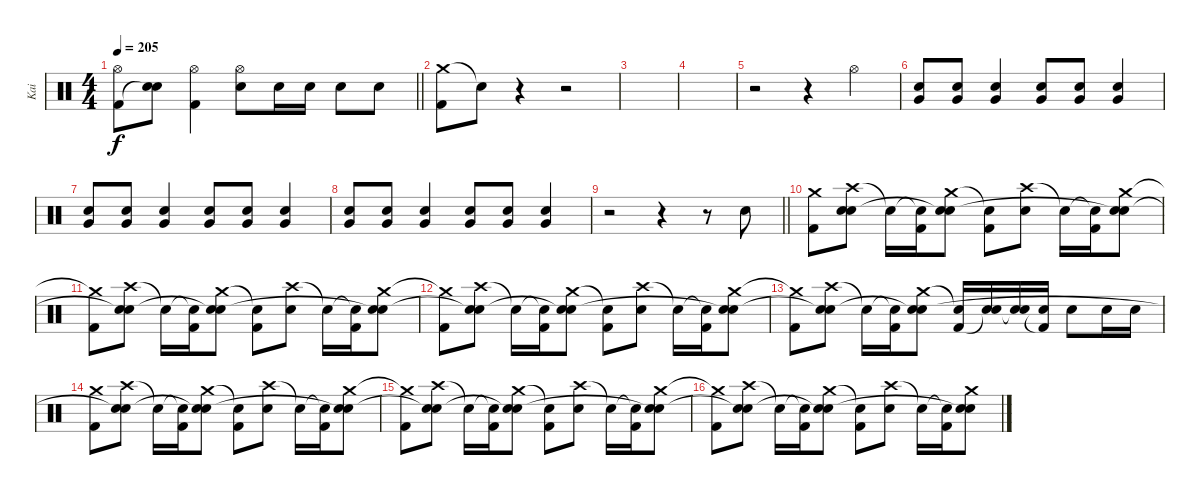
\track ("Kai" "Kai") {instrument percussion}
\staff {score}
\articulation defaults
\ts (4 4)
\tempo 205
\clef neutral
\barLineRight lightlight
\ks c
("Hi-Hat (open)" "Kick (hit) 2").8{dy f} ("Snare (hit) 2" "Snare (hit)"{t}).8 ("Hi-Hat (open)" "Kick (hit) 2").4 ("Hi-Hat (open)" "Snare (hit) 2").8 "Snare (hit) 2".16 "Snare (hit) 2".16 "Snare (hit) 2".8 "Snare (hit) 2".8 |
("Crash medium (hit)" "Kick (hit) 2").8 "Snare (hit)"{t}.8 r.4 r.2 |
|
|
r.2 r.4 "Hi-Hat (open)".4 |
("Snare (hit) 2" "Very Low Tom (hit)").8 ("Snare (hit) 2" "Very Low Tom (hit)").8 ("Snare (hit) 2" "Very Low Tom (hit)").4 ("Snare (hit) 2" "Very Low Tom (hit)").8 ("Snare (hit) 2" "Very Low Tom (hit)").8 ("Snare (hit) 2" "Very Low Tom (hit)").4 |
("Snare (hit) 2" "Very Low Tom (hit)").8 ("Snare (hit) 2" "Very Low Tom (hit)").8 ("Snare (hit) 2" "Very Low Tom (hit)").4 ("Snare (hit) 2" "Very Low Tom (hit)").8 ("Snare (hit) 2" "Very Low Tom (hit)").8 ("Snare (hit) 2" "Very Low Tom (hit)").4 |
("Snare (hit) 2" "Very Low Tom (hit)").8 ("Snare (hit) 2" "Very Low Tom (hit)").8 ("Snare (hit) 2" "Very Low Tom (hit)").4 ("Snare (hit) 2" "Very Low Tom (hit)").8 ("Snare (hit) 2" "Very Low Tom (hit)").8 ("Snare (hit) 2" "Very Low Tom (hit)").4 |
\barLineRight lightlight
r.2 r.4 r.8 "Snare (hit) 2".8 |
("Crash medium (hit)" "Kick (hit) 2").8 ("Crash high (hit)" "Snare (hit) 2" "Snare (hit)").8 "Snare (hit)"{t}.16 ("Snare (hit)"{t} "Kick (hit) 2").16 ("Crash medium (hit)" "Snare (hit) 2" "Snare (hit)"{t}).8 ("Snare (hit)"{t} "Kick (hit) 2").8 ("Crash high (hit)" "Snare (hit) 2").8 "Snare (hit)"{t}.16 ("Snare (hit)"{t} "Kick (hit) 2").16 ("Crash medium (hit)" "Snare (hit) 2" "Snare (hit)"{t}).8 |
("Crash medium (hit)"{t} "Kick (hit) 2").8 ("Crash high (hit)" "Snare (hit) 2" "Snare (hit)"{t}).8 "Snare (hit)"{t}.16 ("Snare (hit)"{t} "Kick (hit) 2").16 ("Crash medium (hit)" "Snare (hit) 2" "Snare (hit)"{t}).8 ("Snare (hit)"{t} "Kick (hit) 2").8 ("Crash high (hit)" "Snare (hit) 2").8 "Snare (hit)"{t}.16 ("Snare (hit)"{t} "Kick (hit) 2").16 ("Crash medium (hit)" "Snare (hit) 2" "Snare (hit)"{t}).8 |
("Crash medium (hit)"{t} "Kick (hit) 2").8 ("Crash high (hit)" "Snare (hit) 2" "Snare (hit)"{t}).8 "Snare (hit)"{t}.16 ("Snare (hit)"{t} "Kick (hit) 2").16 ("Crash medium (hit)" "Snare (hit) 2" "Snare (hit)"{t}).8 ("Snare (hit)"{t} "Kick (hit) 2").8 ("Crash high (hit)" "Snare (hit) 2").8 "Snare (hit)"{t}.16 ("Snare (hit)"{t} "Kick (hit) 2").16 ("Crash medium (hit)" "Snare (hit) 2" "Snare (hit)"{t}).8 |
("Crash medium (hit)"{t} "Kick (hit) 2").8 ("Crash high (hit)" "Snare (hit) 2" "Snare (hit)"{t}).8 "Snare (hit)"{t}.16 ("Snare (hit)"{t} "Kick (hit) 2").16 ("Crash medium (hit)" "Snare (hit) 2" "Snare (hit)"{t}).8 ("Snare (hit)"{t} "Kick (hit) 2").16 ("Snare (hit) 2" "Snare (hit)"{t}).16 ("Snare (hit) 2" "Snare (hit)"{t}).16 ("Snare (hit) 2" "Kick (hit) 2"{t}).16 "Snare (hit) 2".8 "Snare (hit) 2".16 "Snare (hit) 2".16 |
("Crash medium (hit)" "Kick (hit) 2").8 ("Crash high (hit)" "Snare (hit) 2" "Snare (hit)"{t}).8 "Snare (hit)"{t}.16 ("Snare (hit)"{t} "Kick (hit) 2").16 ("Crash medium (hit)" "Snare (hit) 2" "Snare (hit)"{t}).8 ("Snare (hit)"{t} "Kick (hit) 2").8 ("Crash high (hit)" "Snare (hit) 2").8 "Snare (hit)"{t}.16 ("Snare (hit)"{t} "Kick (hit) 2").16 ("Crash medium (hit)" "Snare (hit) 2" "Snare (hit)"{t}).8 |
("Crash medium (hit)"{t} "Kick (hit) 2").8 ("Crash high (hit)" "Snare (hit) 2" "Snare (hit)"{t}).8 "Snare (hit)"{t}.16 ("Snare (hit)"{t} "Kick (hit) 2").16 ("Crash medium (hit)" "Snare (hit) 2" "Snare (hit)"{t}).8 ("Snare (hit)"{t} "Kick (hit) 2").8 ("Crash high (hit)" "Snare (hit) 2").8 "Snare (hit)"{t}.16 ("Snare (hit)"{t} "Kick (hit) 2").16 ("Crash medium (hit)" "Snare (hit) 2" "Snare (hit)"{t}).8 |
("Crash medium (hit)"{t} "Kick (hit) 2").8 ("Crash high (hit)" "Snare (hit) 2" "Snare (hit)"{t}).8 "Snare (hit)"{t}.16 ("Snare (hit)"{t} "Kick (hit) 2").16 ("Crash medium (hit)" "Snare (hit) 2" "Snare (hit)"{t}).8 ("Snare (hit)"{t} "Kick (hit) 2").8 ("Crash high (hit)" "Snare (hit) 2").8 "Snare (hit)"{t}.16 ("Snare (hit)"{t} "Kick (hit) 2").16 ("Crash medium (hit)" "Snare (hit) 2" "Snare (hit)"{t}).8
